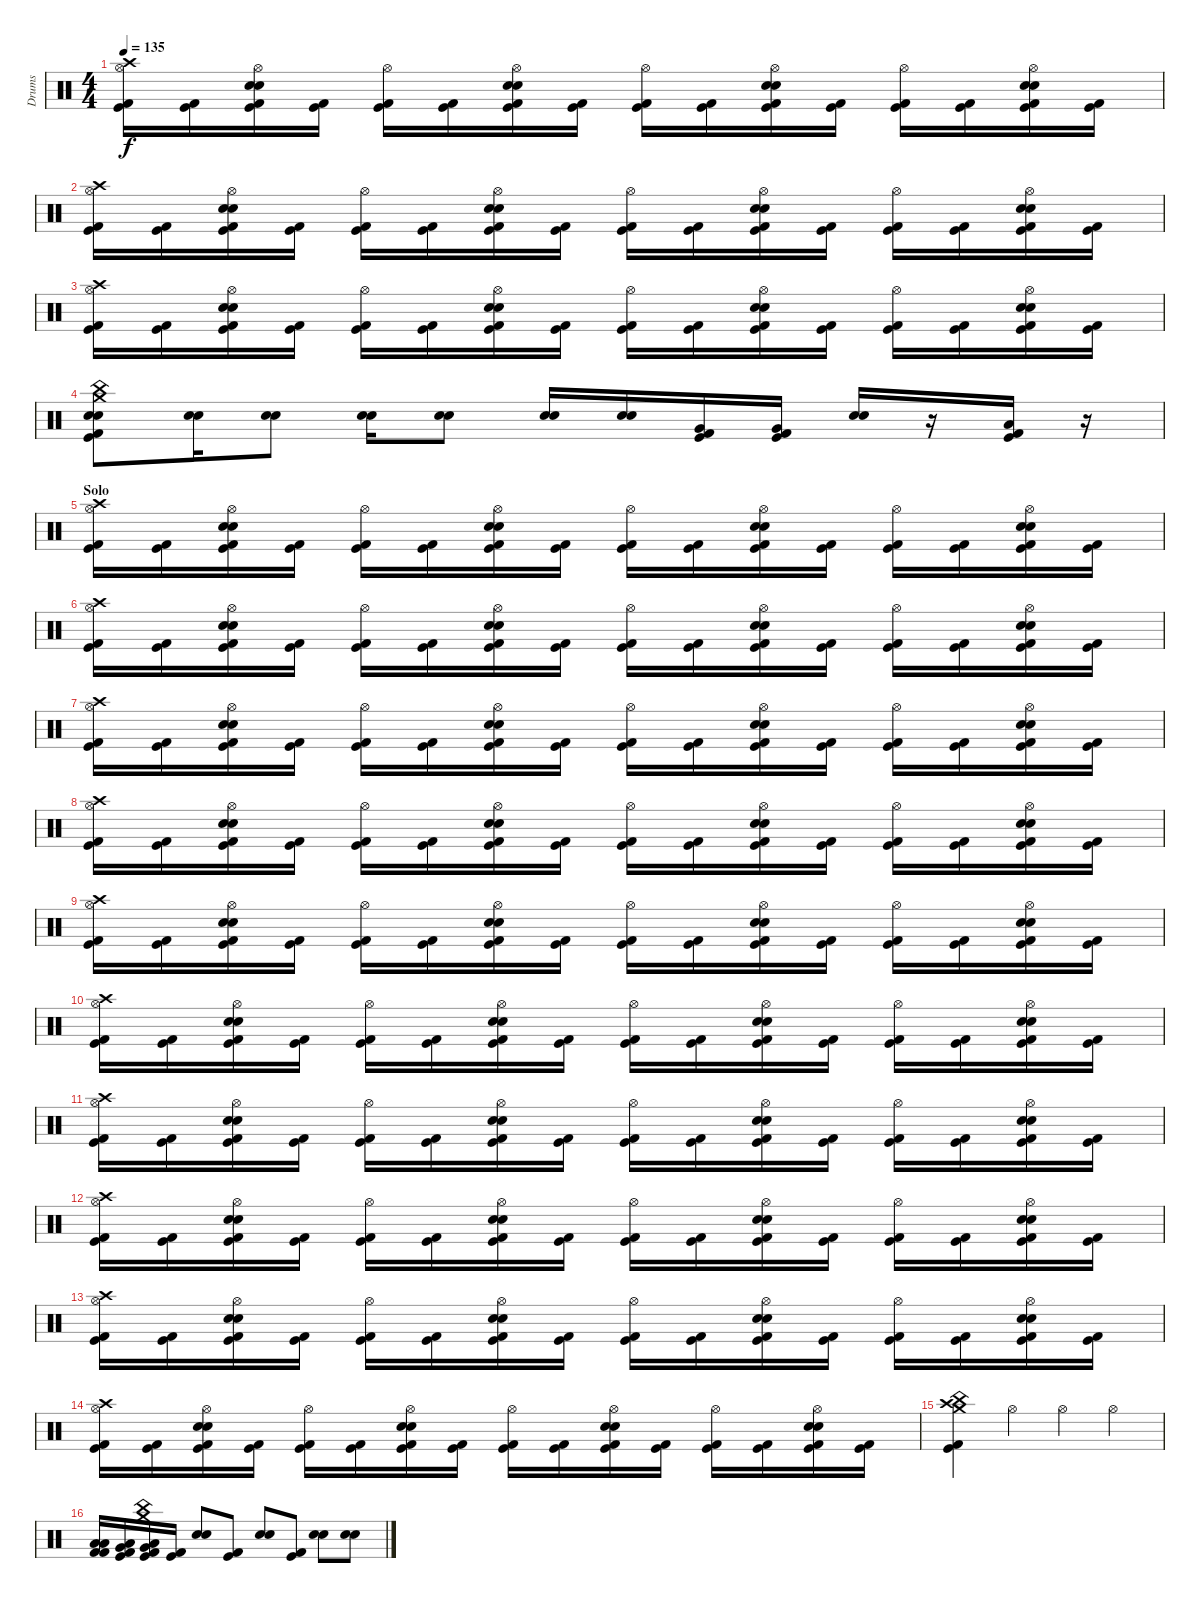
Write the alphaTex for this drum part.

\track ("Drums" "Drums") {instrument percussion}
\staff {score}
\articulation defaults
\ts (4 4)
\tempo 135
\clef neutral
\ks c
("Crash high (hit)" "Hi-Hat (open)" "Kick (hit) 2" "Kick (hit)").16{dy f} ("Kick (hit) 2" "Kick (hit)").16 ("Hi-Hat (open)" "Snare (hit) 2" "Electric Snare (hit)" "Kick (hit) 2" "Kick (hit)").16 ("Kick (hit) 2" "Kick (hit)").16 ("Hi-Hat (open)" "Kick (hit) 2" "Kick (hit)").16 ("Kick (hit) 2" "Kick (hit)").16 ("Hi-Hat (open)" "Snare (hit) 2" "Electric Snare (hit)" "Kick (hit) 2" "Kick (hit)").16 ("Kick (hit) 2" "Kick (hit)").16 ("Hi-Hat (open)" "Kick (hit) 2" "Kick (hit)").16 ("Kick (hit) 2" "Kick (hit)").16 ("Hi-Hat (open)" "Snare (hit) 2" "Electric Snare (hit)" "Kick (hit) 2" "Kick (hit)").16 ("Kick (hit) 2" "Kick (hit)").16 ("Hi-Hat (open)" "Kick (hit) 2" "Kick (hit)").16 ("Kick (hit) 2" "Kick (hit)").16 ("Hi-Hat (open)" "Snare (hit) 2" "Electric Snare (hit)" "Kick (hit) 2" "Kick (hit)").16 ("Kick (hit) 2" "Kick (hit)").16 |
("Crash high (hit)" "Hi-Hat (open)" "Kick (hit) 2" "Kick (hit)").16 ("Kick (hit) 2" "Kick (hit)").16 ("Hi-Hat (open)" "Snare (hit) 2" "Electric Snare (hit)" "Kick (hit) 2" "Kick (hit)").16 ("Kick (hit) 2" "Kick (hit)").16 ("Hi-Hat (open)" "Kick (hit) 2" "Kick (hit)").16 ("Kick (hit) 2" "Kick (hit)").16 ("Hi-Hat (open)" "Snare (hit) 2" "Electric Snare (hit)" "Kick (hit) 2" "Kick (hit)").16 ("Kick (hit) 2" "Kick (hit)").16 ("Hi-Hat (open)" "Kick (hit) 2" "Kick (hit)").16 ("Kick (hit) 2" "Kick (hit)").16 ("Hi-Hat (open)" "Snare (hit) 2" "Electric Snare (hit)" "Kick (hit) 2" "Kick (hit)").16 ("Kick (hit) 2" "Kick (hit)").16 ("Hi-Hat (open)" "Kick (hit) 2" "Kick (hit)").16 ("Kick (hit) 2" "Kick (hit)").16 ("Hi-Hat (open)" "Snare (hit) 2" "Electric Snare (hit)" "Kick (hit) 2" "Kick (hit)").16 ("Kick (hit) 2" "Kick (hit)").16 |
("Crash high (hit)" "Hi-Hat (open)" "Kick (hit) 2" "Kick (hit)").16 ("Kick (hit) 2" "Kick (hit)").16 ("Hi-Hat (open)" "Snare (hit) 2" "Electric Snare (hit)" "Kick (hit) 2" "Kick (hit)").16 ("Kick (hit) 2" "Kick (hit)").16 ("Hi-Hat (open)" "Kick (hit) 2" "Kick (hit)").16 ("Kick (hit) 2" "Kick (hit)").16 ("Hi-Hat (open)" "Snare (hit) 2" "Electric Snare (hit)" "Kick (hit) 2" "Kick (hit)").16 ("Kick (hit) 2" "Kick (hit)").16 ("Hi-Hat (open)" "Kick (hit) 2" "Kick (hit)").16 ("Kick (hit) 2" "Kick (hit)").16 ("Hi-Hat (open)" "Snare (hit) 2" "Electric Snare (hit)" "Kick (hit) 2" "Kick (hit)").16 ("Kick (hit) 2" "Kick (hit)").16 ("Hi-Hat (open)" "Kick (hit) 2" "Kick (hit)").16 ("Kick (hit) 2" "Kick (hit)").16 ("Hi-Hat (open)" "Snare (hit) 2" "Electric Snare (hit)" "Kick (hit) 2" "Kick (hit)").16 ("Kick (hit) 2" "Kick (hit)").16 |
("China (hit)" "Crash medium (hit)" "Electric Snare (hit)" "Snare (hit) 2" "Kick (hit) 2" "Kick (hit)").8 ("Electric Snare (hit)" "Snare (hit) 2").16 ("Electric Snare (hit)" "Snare (hit) 2").8 ("Electric Snare (hit)" "Snare (hit) 2").16 ("Electric Snare (hit)" "Snare (hit) 2").8 ("Electric Snare (hit)" "Snare (hit) 2").16 ("Electric Snare (hit)" "Snare (hit) 2").16 ("Very Low Tom (hit)" "Kick (hit) 2" "Kick (hit)").16 ("Very Low Tom (hit)" "Kick (hit) 2" "Kick (hit)").16 ("Electric Snare (hit)" "Snare (hit) 2").16 r.16 ("Low Tom (hit)" "Kick (hit) 2" "Kick (hit)").16 r.16 |
\section ("" "Solo")
("Crash high (hit)" "Hi-Hat (open)" "Kick (hit) 2" "Kick (hit)").16 ("Kick (hit) 2" "Kick (hit)").16 ("Hi-Hat (open)" "Snare (hit) 2" "Electric Snare (hit)" "Kick (hit) 2" "Kick (hit)").16 ("Kick (hit) 2" "Kick (hit)").16 ("Hi-Hat (open)" "Kick (hit) 2" "Kick (hit)").16 ("Kick (hit) 2" "Kick (hit)").16 ("Hi-Hat (open)" "Snare (hit) 2" "Electric Snare (hit)" "Kick (hit) 2" "Kick (hit)").16 ("Kick (hit) 2" "Kick (hit)").16 ("Hi-Hat (open)" "Kick (hit) 2" "Kick (hit)").16 ("Kick (hit) 2" "Kick (hit)").16 ("Hi-Hat (open)" "Snare (hit) 2" "Electric Snare (hit)" "Kick (hit) 2" "Kick (hit)").16 ("Kick (hit) 2" "Kick (hit)").16 ("Hi-Hat (open)" "Kick (hit) 2" "Kick (hit)").16 ("Kick (hit) 2" "Kick (hit)").16 ("Hi-Hat (open)" "Snare (hit) 2" "Electric Snare (hit)" "Kick (hit) 2" "Kick (hit)").16 ("Kick (hit) 2" "Kick (hit)").16 |
("Crash high (hit)" "Hi-Hat (open)" "Kick (hit) 2" "Kick (hit)").16 ("Kick (hit) 2" "Kick (hit)").16 ("Hi-Hat (open)" "Snare (hit) 2" "Electric Snare (hit)" "Kick (hit) 2" "Kick (hit)").16 ("Kick (hit) 2" "Kick (hit)").16 ("Hi-Hat (open)" "Kick (hit) 2" "Kick (hit)").16 ("Kick (hit) 2" "Kick (hit)").16 ("Hi-Hat (open)" "Snare (hit) 2" "Electric Snare (hit)" "Kick (hit) 2" "Kick (hit)").16 ("Kick (hit) 2" "Kick (hit)").16 ("Hi-Hat (open)" "Kick (hit) 2" "Kick (hit)").16 ("Kick (hit) 2" "Kick (hit)").16 ("Hi-Hat (open)" "Snare (hit) 2" "Electric Snare (hit)" "Kick (hit) 2" "Kick (hit)").16 ("Kick (hit) 2" "Kick (hit)").16 ("Hi-Hat (open)" "Kick (hit) 2" "Kick (hit)").16 ("Kick (hit) 2" "Kick (hit)").16 ("Hi-Hat (open)" "Snare (hit) 2" "Electric Snare (hit)" "Kick (hit) 2" "Kick (hit)").16 ("Kick (hit) 2" "Kick (hit)").16 |
("Crash high (hit)" "Hi-Hat (open)" "Kick (hit) 2" "Kick (hit)").16 ("Kick (hit) 2" "Kick (hit)").16 ("Hi-Hat (open)" "Snare (hit) 2" "Electric Snare (hit)" "Kick (hit) 2" "Kick (hit)").16 ("Kick (hit) 2" "Kick (hit)").16 ("Hi-Hat (open)" "Kick (hit) 2" "Kick (hit)").16 ("Kick (hit) 2" "Kick (hit)").16 ("Hi-Hat (open)" "Snare (hit) 2" "Electric Snare (hit)" "Kick (hit) 2" "Kick (hit)").16 ("Kick (hit) 2" "Kick (hit)").16 ("Hi-Hat (open)" "Kick (hit) 2" "Kick (hit)").16 ("Kick (hit) 2" "Kick (hit)").16 ("Hi-Hat (open)" "Snare (hit) 2" "Electric Snare (hit)" "Kick (hit) 2" "Kick (hit)").16 ("Kick (hit) 2" "Kick (hit)").16 ("Hi-Hat (open)" "Kick (hit) 2" "Kick (hit)").16 ("Kick (hit) 2" "Kick (hit)").16 ("Hi-Hat (open)" "Snare (hit) 2" "Electric Snare (hit)" "Kick (hit) 2" "Kick (hit)").16 ("Kick (hit) 2" "Kick (hit)").16 |
("Crash high (hit)" "Hi-Hat (open)" "Kick (hit) 2" "Kick (hit)").16 ("Kick (hit) 2" "Kick (hit)").16 ("Hi-Hat (open)" "Snare (hit) 2" "Electric Snare (hit)" "Kick (hit) 2" "Kick (hit)").16 ("Kick (hit) 2" "Kick (hit)").16 ("Hi-Hat (open)" "Kick (hit) 2" "Kick (hit)").16 ("Kick (hit) 2" "Kick (hit)").16 ("Hi-Hat (open)" "Snare (hit) 2" "Electric Snare (hit)" "Kick (hit) 2" "Kick (hit)").16 ("Kick (hit) 2" "Kick (hit)").16 ("Hi-Hat (open)" "Kick (hit) 2" "Kick (hit)").16 ("Kick (hit) 2" "Kick (hit)").16 ("Hi-Hat (open)" "Snare (hit) 2" "Electric Snare (hit)" "Kick (hit) 2" "Kick (hit)").16 ("Kick (hit) 2" "Kick (hit)").16 ("Hi-Hat (open)" "Kick (hit) 2" "Kick (hit)").16 ("Kick (hit) 2" "Kick (hit)").16 ("Hi-Hat (open)" "Snare (hit) 2" "Electric Snare (hit)" "Kick (hit) 2" "Kick (hit)").16 ("Kick (hit) 2" "Kick (hit)").16 |
("Crash high (hit)" "Hi-Hat (open)" "Kick (hit) 2" "Kick (hit)").16 ("Kick (hit) 2" "Kick (hit)").16 ("Hi-Hat (open)" "Snare (hit) 2" "Electric Snare (hit)" "Kick (hit) 2" "Kick (hit)").16 ("Kick (hit) 2" "Kick (hit)").16 ("Hi-Hat (open)" "Kick (hit) 2" "Kick (hit)").16 ("Kick (hit) 2" "Kick (hit)").16 ("Hi-Hat (open)" "Snare (hit) 2" "Electric Snare (hit)" "Kick (hit) 2" "Kick (hit)").16 ("Kick (hit) 2" "Kick (hit)").16 ("Hi-Hat (open)" "Kick (hit) 2" "Kick (hit)").16 ("Kick (hit) 2" "Kick (hit)").16 ("Hi-Hat (open)" "Snare (hit) 2" "Electric Snare (hit)" "Kick (hit) 2" "Kick (hit)").16 ("Kick (hit) 2" "Kick (hit)").16 ("Hi-Hat (open)" "Kick (hit) 2" "Kick (hit)").16 ("Kick (hit) 2" "Kick (hit)").16 ("Hi-Hat (open)" "Snare (hit) 2" "Electric Snare (hit)" "Kick (hit) 2" "Kick (hit)").16 ("Kick (hit) 2" "Kick (hit)").16 |
("Crash high (hit)" "Hi-Hat (open)" "Kick (hit) 2" "Kick (hit)").16 ("Kick (hit) 2" "Kick (hit)").16 ("Hi-Hat (open)" "Snare (hit) 2" "Electric Snare (hit)" "Kick (hit) 2" "Kick (hit)").16 ("Kick (hit) 2" "Kick (hit)").16 ("Hi-Hat (open)" "Kick (hit) 2" "Kick (hit)").16 ("Kick (hit) 2" "Kick (hit)").16 ("Hi-Hat (open)" "Snare (hit) 2" "Electric Snare (hit)" "Kick (hit) 2" "Kick (hit)").16 ("Kick (hit) 2" "Kick (hit)").16 ("Hi-Hat (open)" "Kick (hit) 2" "Kick (hit)").16 ("Kick (hit) 2" "Kick (hit)").16 ("Hi-Hat (open)" "Snare (hit) 2" "Electric Snare (hit)" "Kick (hit) 2" "Kick (hit)").16 ("Kick (hit) 2" "Kick (hit)").16 ("Hi-Hat (open)" "Kick (hit) 2" "Kick (hit)").16 ("Kick (hit) 2" "Kick (hit)").16 ("Hi-Hat (open)" "Snare (hit) 2" "Electric Snare (hit)" "Kick (hit) 2" "Kick (hit)").16 ("Kick (hit) 2" "Kick (hit)").16 |
("Crash high (hit)" "Hi-Hat (open)" "Kick (hit) 2" "Kick (hit)").16 ("Kick (hit) 2" "Kick (hit)").16 ("Hi-Hat (open)" "Snare (hit) 2" "Electric Snare (hit)" "Kick (hit) 2" "Kick (hit)").16 ("Kick (hit) 2" "Kick (hit)").16 ("Hi-Hat (open)" "Kick (hit) 2" "Kick (hit)").16 ("Kick (hit) 2" "Kick (hit)").16 ("Hi-Hat (open)" "Snare (hit) 2" "Electric Snare (hit)" "Kick (hit) 2" "Kick (hit)").16 ("Kick (hit) 2" "Kick (hit)").16 ("Hi-Hat (open)" "Kick (hit) 2" "Kick (hit)").16 ("Kick (hit) 2" "Kick (hit)").16 ("Hi-Hat (open)" "Snare (hit) 2" "Electric Snare (hit)" "Kick (hit) 2" "Kick (hit)").16 ("Kick (hit) 2" "Kick (hit)").16 ("Hi-Hat (open)" "Kick (hit) 2" "Kick (hit)").16 ("Kick (hit) 2" "Kick (hit)").16 ("Hi-Hat (open)" "Snare (hit) 2" "Electric Snare (hit)" "Kick (hit) 2" "Kick (hit)").16 ("Kick (hit) 2" "Kick (hit)").16 |
("Crash high (hit)" "Hi-Hat (open)" "Kick (hit) 2" "Kick (hit)").16 ("Kick (hit) 2" "Kick (hit)").16 ("Hi-Hat (open)" "Snare (hit) 2" "Electric Snare (hit)" "Kick (hit) 2" "Kick (hit)").16 ("Kick (hit) 2" "Kick (hit)").16 ("Hi-Hat (open)" "Kick (hit) 2" "Kick (hit)").16 ("Kick (hit) 2" "Kick (hit)").16 ("Hi-Hat (open)" "Snare (hit) 2" "Electric Snare (hit)" "Kick (hit) 2" "Kick (hit)").16 ("Kick (hit) 2" "Kick (hit)").16 ("Hi-Hat (open)" "Kick (hit) 2" "Kick (hit)").16 ("Kick (hit) 2" "Kick (hit)").16 ("Hi-Hat (open)" "Snare (hit) 2" "Electric Snare (hit)" "Kick (hit) 2" "Kick (hit)").16 ("Kick (hit) 2" "Kick (hit)").16 ("Hi-Hat (open)" "Kick (hit) 2" "Kick (hit)").16 ("Kick (hit) 2" "Kick (hit)").16 ("Hi-Hat (open)" "Snare (hit) 2" "Electric Snare (hit)" "Kick (hit) 2" "Kick (hit)").16 ("Kick (hit) 2" "Kick (hit)").16 |
("Crash high (hit)" "Hi-Hat (open)" "Kick (hit) 2" "Kick (hit)").16 ("Kick (hit) 2" "Kick (hit)").16 ("Hi-Hat (open)" "Snare (hit) 2" "Electric Snare (hit)" "Kick (hit) 2" "Kick (hit)").16 ("Kick (hit) 2" "Kick (hit)").16 ("Hi-Hat (open)" "Kick (hit) 2" "Kick (hit)").16 ("Kick (hit) 2" "Kick (hit)").16 ("Hi-Hat (open)" "Snare (hit) 2" "Electric Snare (hit)" "Kick (hit) 2" "Kick (hit)").16 ("Kick (hit) 2" "Kick (hit)").16 ("Hi-Hat (open)" "Kick (hit) 2" "Kick (hit)").16 ("Kick (hit) 2" "Kick (hit)").16 ("Hi-Hat (open)" "Snare (hit) 2" "Electric Snare (hit)" "Kick (hit) 2" "Kick (hit)").16 ("Kick (hit) 2" "Kick (hit)").16 ("Hi-Hat (open)" "Kick (hit) 2" "Kick (hit)").16 ("Kick (hit) 2" "Kick (hit)").16 ("Hi-Hat (open)" "Snare (hit) 2" "Electric Snare (hit)" "Kick (hit) 2" "Kick (hit)").16 ("Kick (hit) 2" "Kick (hit)").16 |
("Crash high (hit)" "Hi-Hat (open)" "Kick (hit) 2" "Kick (hit)").16 ("Kick (hit) 2" "Kick (hit)").16 ("Hi-Hat (open)" "Snare (hit) 2" "Electric Snare (hit)" "Kick (hit) 2" "Kick (hit)").16 ("Kick (hit) 2" "Kick (hit)").16 ("Hi-Hat (open)" "Kick (hit) 2" "Kick (hit)").16 ("Kick (hit) 2" "Kick (hit)").16 ("Hi-Hat (open)" "Snare (hit) 2" "Electric Snare (hit)" "Kick (hit) 2" "Kick (hit)").16 ("Kick (hit) 2" "Kick (hit)").16 ("Hi-Hat (open)" "Kick (hit) 2" "Kick (hit)").16 ("Kick (hit) 2" "Kick (hit)").16 ("Hi-Hat (open)" "Snare (hit) 2" "Electric Snare (hit)" "Kick (hit) 2" "Kick (hit)").16 ("Kick (hit) 2" "Kick (hit)").16 ("Hi-Hat (open)" "Kick (hit) 2" "Kick (hit)").16 ("Kick (hit) 2" "Kick (hit)").16 ("Hi-Hat (open)" "Snare (hit) 2" "Electric Snare (hit)" "Kick (hit) 2" "Kick (hit)").16 ("Kick (hit) 2" "Kick (hit)").16 |
("Crash high (hit)" "Crash medium (hit)" "China (hit)" "Kick (hit) 2" "Kick (hit)").4 "Hi-Hat (open)".4 "Hi-Hat (open)".4 "Hi-Hat (open)".4 |
("Low Tom (hit)" "Low Tom (hit)" "Kick (hit) 2" "Kick (hit) 2").16 ("Very Low Tom (hit)" "Low Floor Tom (hit)" "Kick (hit) 2" "Kick (hit)").16 ("China (hit)" "Crash medium (hit)" "Very Low Tom (hit)" "Low Floor Tom (hit)" "Kick (hit)" "Kick (hit) 2").16 ("Kick (hit) 2" "Kick (hit)").16 ("Electric Snare (hit)" "Snare (hit) 2").8 ("Kick (hit) 2" "Kick (hit)").8 ("Snare (hit) 2" "Electric Snare (hit)").8 ("Kick (hit)" "Kick (hit) 2").8 ("Electric Snare (hit)" "Snare (hit) 2").8 ("Electric Snare (hit)" "Snare (hit) 2").8
